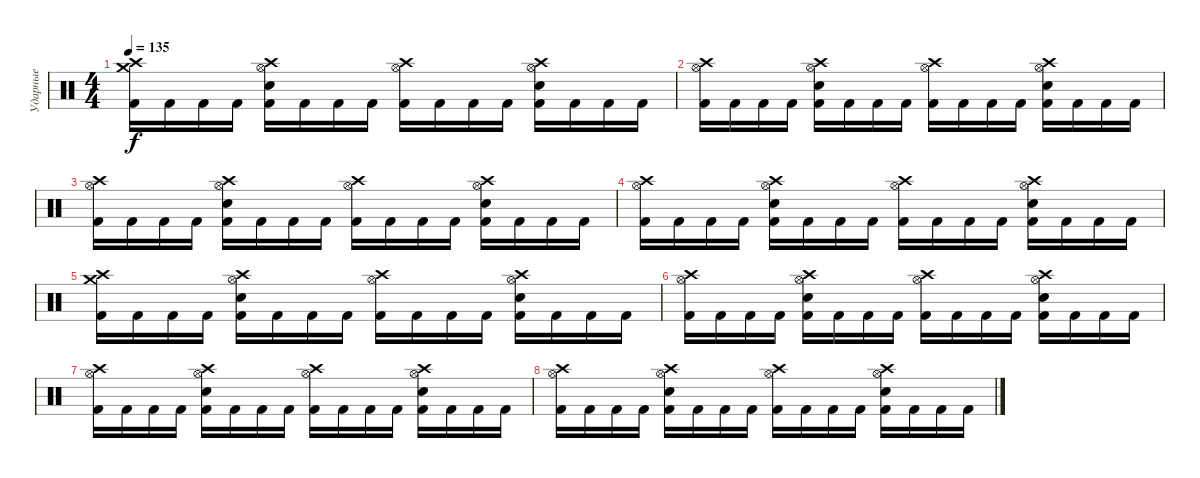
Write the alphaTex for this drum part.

\track ("Ударные" "Ударные") {instrument percussion}
\staff {score}
\articulation defaults
\ts (4 4)
\tempo 135
\clef neutral
\ks c
("Crash medium (hit)" "Crash high (hit)" "Kick (hit) 2").16{dy f} "Kick (hit) 2".16 "Kick (hit) 2".16 "Kick (hit) 2".16 ("Crash high (hit)" "Hi-Hat (open)" "Electric Snare (hit)" "Kick (hit) 2").16 "Kick (hit) 2".16 "Kick (hit) 2".16 "Kick (hit) 2".16 ("Crash high (hit)" "Hi-Hat (open)" "Kick (hit) 2").16 "Kick (hit) 2".16 "Kick (hit) 2".16 "Kick (hit) 2".16 ("Crash high (hit)" "Hi-Hat (open)" "Electric Snare (hit)" "Kick (hit) 2").16 "Kick (hit) 2".16 "Kick (hit) 2".16 "Kick (hit) 2".16 |
("Crash high (hit)" "Hi-Hat (open)" "Kick (hit) 2").16 "Kick (hit) 2".16 "Kick (hit) 2".16 "Kick (hit) 2".16 ("Crash high (hit)" "Hi-Hat (open)" "Electric Snare (hit)" "Kick (hit) 2").16 "Kick (hit) 2".16 "Kick (hit) 2".16 "Kick (hit) 2".16 ("Crash high (hit)" "Hi-Hat (open)" "Kick (hit) 2").16 "Kick (hit) 2".16 "Kick (hit) 2".16 "Kick (hit) 2".16 ("Crash high (hit)" "Hi-Hat (open)" "Electric Snare (hit)" "Kick (hit) 2").16 "Kick (hit) 2".16 "Kick (hit) 2".16 "Kick (hit) 2".16 |
("Crash high (hit)" "Hi-Hat (open)" "Kick (hit) 2").16 "Kick (hit) 2".16 "Kick (hit) 2".16 "Kick (hit) 2".16 ("Crash high (hit)" "Hi-Hat (open)" "Electric Snare (hit)" "Kick (hit) 2").16 "Kick (hit) 2".16 "Kick (hit) 2".16 "Kick (hit) 2".16 ("Crash high (hit)" "Hi-Hat (open)" "Kick (hit) 2").16 "Kick (hit) 2".16 "Kick (hit) 2".16 "Kick (hit) 2".16 ("Crash high (hit)" "Hi-Hat (open)" "Electric Snare (hit)" "Kick (hit) 2").16 "Kick (hit) 2".16 "Kick (hit) 2".16 "Kick (hit) 2".16 |
("Crash high (hit)" "Hi-Hat (open)" "Kick (hit) 2").16 "Kick (hit) 2".16 "Kick (hit) 2".16 "Kick (hit) 2".16 ("Crash high (hit)" "Hi-Hat (open)" "Electric Snare (hit)" "Kick (hit) 2").16 "Kick (hit) 2".16 "Kick (hit) 2".16 "Kick (hit) 2".16 ("Crash high (hit)" "Hi-Hat (open)" "Kick (hit) 2").16 "Kick (hit) 2".16 "Kick (hit) 2".16 "Kick (hit) 2".16 ("Crash high (hit)" "Hi-Hat (open)" "Electric Snare (hit)" "Kick (hit) 2").16 "Kick (hit) 2".16 "Kick (hit) 2".16 "Kick (hit) 2".16 |
("Crash medium (hit)" "Crash high (hit)" "Kick (hit) 2").16 "Kick (hit) 2".16 "Kick (hit) 2".16 "Kick (hit) 2".16 ("Crash high (hit)" "Hi-Hat (open)" "Electric Snare (hit)" "Kick (hit) 2").16 "Kick (hit) 2".16 "Kick (hit) 2".16 "Kick (hit) 2".16 ("Crash high (hit)" "Hi-Hat (open)" "Kick (hit) 2").16 "Kick (hit) 2".16 "Kick (hit) 2".16 "Kick (hit) 2".16 ("Crash high (hit)" "Hi-Hat (open)" "Electric Snare (hit)" "Kick (hit) 2").16 "Kick (hit) 2".16 "Kick (hit) 2".16 "Kick (hit) 2".16 |
("Crash high (hit)" "Hi-Hat (open)" "Kick (hit) 2").16 "Kick (hit) 2".16 "Kick (hit) 2".16 "Kick (hit) 2".16 ("Crash high (hit)" "Hi-Hat (open)" "Electric Snare (hit)" "Kick (hit) 2").16 "Kick (hit) 2".16 "Kick (hit) 2".16 "Kick (hit) 2".16 ("Crash high (hit)" "Hi-Hat (open)" "Kick (hit) 2").16 "Kick (hit) 2".16 "Kick (hit) 2".16 "Kick (hit) 2".16 ("Crash high (hit)" "Hi-Hat (open)" "Electric Snare (hit)" "Kick (hit) 2").16 "Kick (hit) 2".16 "Kick (hit) 2".16 "Kick (hit) 2".16 |
("Crash high (hit)" "Hi-Hat (open)" "Kick (hit) 2").16 "Kick (hit) 2".16 "Kick (hit) 2".16 "Kick (hit) 2".16 ("Crash high (hit)" "Hi-Hat (open)" "Electric Snare (hit)" "Kick (hit) 2").16 "Kick (hit) 2".16 "Kick (hit) 2".16 "Kick (hit) 2".16 ("Crash high (hit)" "Hi-Hat (open)" "Kick (hit) 2").16 "Kick (hit) 2".16 "Kick (hit) 2".16 "Kick (hit) 2".16 ("Crash high (hit)" "Hi-Hat (open)" "Electric Snare (hit)" "Kick (hit) 2").16 "Kick (hit) 2".16 "Kick (hit) 2".16 "Kick (hit) 2".16 |
("Crash high (hit)" "Hi-Hat (open)" "Kick (hit) 2").16 "Kick (hit) 2".16 "Kick (hit) 2".16 "Kick (hit) 2".16 ("Crash high (hit)" "Hi-Hat (open)" "Electric Snare (hit)" "Kick (hit) 2").16 "Kick (hit) 2".16 "Kick (hit) 2".16 "Kick (hit) 2".16 ("Crash high (hit)" "Hi-Hat (open)" "Kick (hit) 2").16 "Kick (hit) 2".16 "Kick (hit) 2".16 "Kick (hit) 2".16 ("Crash high (hit)" "Hi-Hat (open)" "Electric Snare (hit)" "Kick (hit) 2").16 "Kick (hit) 2".16 "Kick (hit) 2".16 "Kick (hit) 2".16
